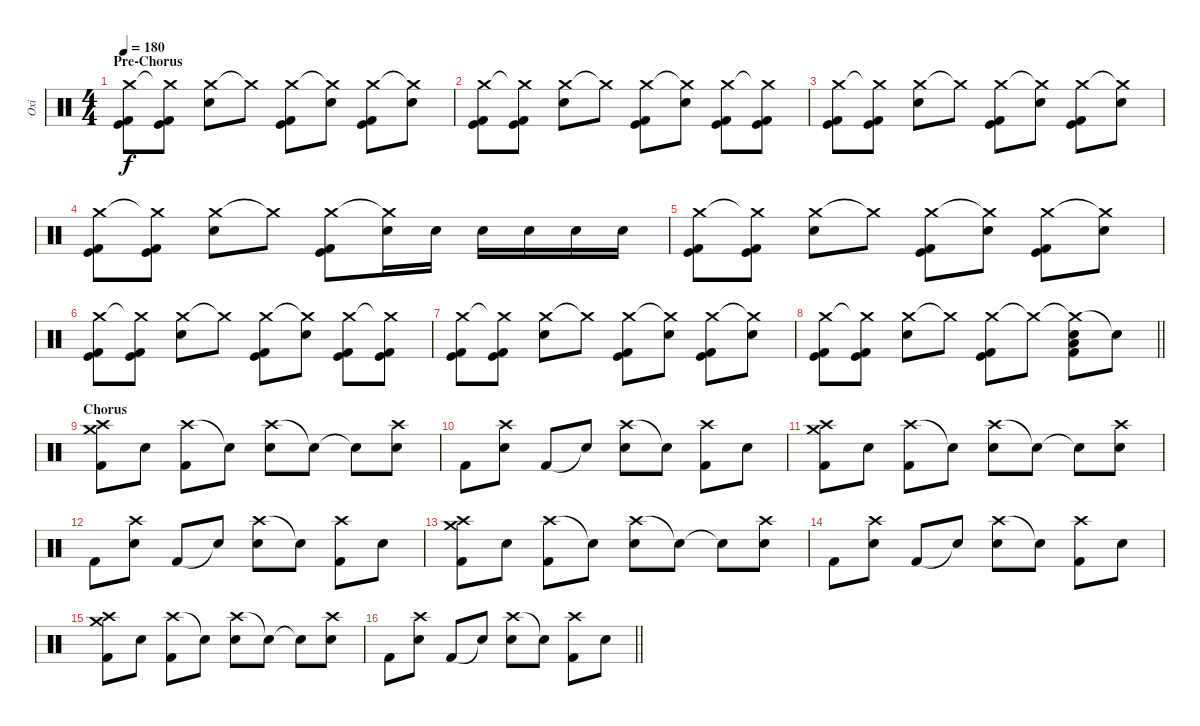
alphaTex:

\track ("Oxi" "Oxi") {instrument percussion}
\staff {score}
\articulation defaults
\ts (4 4)
\section ("" "Pre-Chorus")
\tempo 180
\clef neutral
\ks c
("Crash medium (hit)" "Kick (hit) 2" "Kick (hit)").8{dy f} ("Crash medium (hit)"{t} "Kick (hit) 2" "Kick (hit)").8 ("Crash medium (hit)" "Electric Snare (hit)").8 "Crash medium (hit)"{t}.8 ("Crash medium (hit)" "Kick (hit) 2" "Kick (hit)").8 ("Crash medium (hit)"{t} "Electric Snare (hit)").8 ("Crash medium (hit)" "Kick (hit) 2" "Kick (hit)").8 ("Crash medium (hit)"{t} "Electric Snare (hit)").8 |
("Crash medium (hit)" "Kick (hit) 2" "Kick (hit)").8 ("Crash medium (hit)"{t} "Kick (hit) 2" "Kick (hit)").8 ("Crash medium (hit)" "Electric Snare (hit)").8 "Crash medium (hit)"{t}.8 ("Crash medium (hit)" "Kick (hit) 2" "Kick (hit)").8 ("Crash medium (hit)"{t} "Electric Snare (hit)").8 ("Crash medium (hit)" "Kick (hit) 2" "Kick (hit)").8 ("Crash medium (hit)"{t} "Kick (hit) 2" "Kick (hit)").8 |
("Crash medium (hit)" "Kick (hit) 2" "Kick (hit)").8 ("Crash medium (hit)"{t} "Kick (hit) 2" "Kick (hit)").8 ("Crash medium (hit)" "Electric Snare (hit)").8 "Crash medium (hit)"{t}.8 ("Crash medium (hit)" "Kick (hit) 2" "Kick (hit)").8 ("Crash medium (hit)"{t} "Electric Snare (hit)").8 ("Crash medium (hit)" "Kick (hit) 2" "Kick (hit)").8 ("Crash medium (hit)"{t} "Electric Snare (hit)").8 |
("Crash medium (hit)" "Kick (hit) 2" "Kick (hit)").8 ("Crash medium (hit)"{t} "Kick (hit) 2" "Kick (hit)").8 ("Crash medium (hit)" "Electric Snare (hit)").8 "Crash medium (hit)"{t}.8 ("Crash medium (hit)" "Kick (hit) 2" "Kick (hit)").8 ("Crash medium (hit)"{t} "Electric Snare (hit)").16 "Electric Snare (hit)".16 "Electric Snare (hit)".16 "Electric Snare (hit)".16 "Electric Snare (hit)".16 "Electric Snare (hit)".16 |
("Crash medium (hit)" "Kick (hit) 2" "Kick (hit)").8 ("Crash medium (hit)"{t} "Kick (hit) 2" "Kick (hit)").8 ("Crash medium (hit)" "Electric Snare (hit)").8 "Crash medium (hit)"{t}.8 ("Crash medium (hit)" "Kick (hit) 2" "Kick (hit)").8 ("Crash medium (hit)"{t} "Electric Snare (hit)").8 ("Crash medium (hit)" "Kick (hit) 2" "Kick (hit)").8 ("Crash medium (hit)"{t} "Electric Snare (hit)").8 |
("Crash medium (hit)" "Kick (hit) 2" "Kick (hit)").8 ("Crash medium (hit)"{t} "Kick (hit) 2" "Kick (hit)").8 ("Crash medium (hit)" "Electric Snare (hit)").8 "Crash medium (hit)"{t}.8 ("Crash medium (hit)" "Kick (hit) 2" "Kick (hit)").8 ("Crash medium (hit)"{t} "Electric Snare (hit)").8 ("Crash medium (hit)" "Kick (hit) 2" "Kick (hit)").8 ("Crash medium (hit)"{t} "Kick (hit) 2" "Kick (hit)").8 |
("Crash medium (hit)" "Kick (hit) 2" "Kick (hit)").8 ("Crash medium (hit)"{t} "Kick (hit) 2" "Kick (hit)").8 ("Crash medium (hit)" "Electric Snare (hit)").8 "Crash medium (hit)"{t}.8 ("Crash medium (hit)" "Kick (hit) 2" "Kick (hit)").8 ("Crash medium (hit)"{t} "Electric Snare (hit)").8 ("Crash medium (hit)" "Kick (hit) 2" "Kick (hit)").8 ("Crash medium (hit)"{t} "Electric Snare (hit)").8 |
\barLineRight lightlight
("Crash medium (hit)" "Kick (hit) 2" "Kick (hit)").8 ("Crash medium (hit)"{t} "Kick (hit) 2" "Kick (hit)").8 ("Crash medium (hit)" "Electric Snare (hit)").8 "Crash medium (hit)"{t}.8 ("Crash medium (hit)" "Kick (hit) 2" "Kick (hit)").8 "Crash medium (hit)"{t}.8 ("Crash medium (hit)"{t} "Electric Snare (hit)" "Low Tom (hit)" "Kick (hit) 2").8 "Snare (hit)"{t}.8 |
\section ("" "Chorus")
("Crash medium (hit)" "Crash high (hit)" "Kick (hit) 2").8 "Electric Snare (hit)".8 ("Crash high (hit)" "Kick (hit) 2").8 "Snare (hit)"{t}.8 ("Crash high (hit)" "Electric Snare (hit)").8 "Snare (hit)"{t}.8 "Snare (hit)"{t}.8 ("Crash high (hit)" "Electric Snare (hit)").8 |
"Kick (hit) 2".8 ("Crash high (hit)" "Electric Snare (hit)").8 "Kick (hit) 2".8 "Snare (hit)"{t}.8 ("Crash high (hit)" "Electric Snare (hit)").8 "Snare (hit)"{t}.8 ("Crash high (hit)" "Kick (hit) 2").8 "Electric Snare (hit)".8 |
("Crash medium (hit)" "Crash high (hit)" "Kick (hit) 2").8 "Electric Snare (hit)".8 ("Crash high (hit)" "Kick (hit) 2").8 "Snare (hit)"{t}.8 ("Crash high (hit)" "Electric Snare (hit)").8 "Snare (hit)"{t}.8 "Snare (hit)"{t}.8 ("Crash high (hit)" "Electric Snare (hit)").8 |
"Kick (hit) 2".8 ("Crash high (hit)" "Electric Snare (hit)").8 "Kick (hit) 2".8 "Snare (hit)"{t}.8 ("Crash high (hit)" "Electric Snare (hit)").8 "Snare (hit)"{t}.8 ("Crash high (hit)" "Kick (hit) 2").8 "Electric Snare (hit)".8 |
("Crash medium (hit)" "Crash high (hit)" "Kick (hit) 2").8 "Electric Snare (hit)".8 ("Crash high (hit)" "Kick (hit) 2").8 "Snare (hit)"{t}.8 ("Crash high (hit)" "Electric Snare (hit)").8 "Snare (hit)"{t}.8 "Snare (hit)"{t}.8 ("Crash high (hit)" "Electric Snare (hit)").8 |
"Kick (hit) 2".8 ("Crash high (hit)" "Electric Snare (hit)").8 "Kick (hit) 2".8 "Snare (hit)"{t}.8 ("Crash high (hit)" "Electric Snare (hit)").8 "Snare (hit)"{t}.8 ("Crash high (hit)" "Kick (hit) 2").8 "Electric Snare (hit)".8 |
("Crash medium (hit)" "Crash high (hit)" "Kick (hit) 2").8 "Electric Snare (hit)".8 ("Crash high (hit)" "Kick (hit) 2").8 "Snare (hit)"{t}.8 ("Crash high (hit)" "Electric Snare (hit)").8 "Snare (hit)"{t}.8 "Snare (hit)"{t}.8 ("Crash high (hit)" "Electric Snare (hit)").8 |
\barLineRight lightlight "Kick (hit) 2".8
("Crash high (hit)" "Electric Snare (hit)").8 "Kick (hit) 2".8 "Snare (hit)"{t}.8 ("Crash high (hit)" "Electric Snare (hit)").8 "Snare (hit)"{t}.8 ("Crash high (hit)" "Kick (hit) 2").8 "Electric Snare (hit)".8
